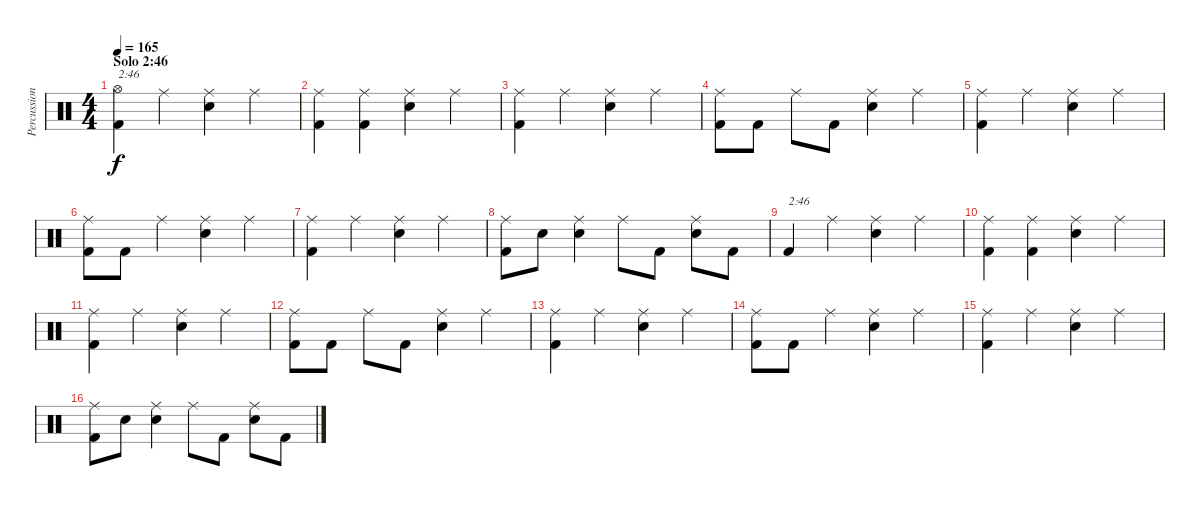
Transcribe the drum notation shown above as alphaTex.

\track ("Percussion" "Percussion") {instrument percussion}
\staff {score}
\articulation defaults
\ts (4 4)
\section ("" "Solo 2:46")
\tempo 165
\clef neutral
\ks c
("Hi-Hat (open)" "Kick (hit) 2").4{txt "2:46" dy f} "Ride (middle)".4 ("Ride (middle)" "Electric Snare (hit)").4 "Ride (middle)".4 |
("Ride (middle)" "Kick (hit) 2").4 ("Ride (middle)" "Kick (hit) 2").4 ("Ride (middle)" "Electric Snare (hit)").4 "Ride (middle)".4 |
("Ride (middle)" "Kick (hit) 2").4 "Ride (middle)".4 ("Ride (middle)" "Electric Snare (hit)").4 "Ride (middle)".4 |
("Ride (middle)" "Kick (hit) 2").8 "Kick (hit) 2".8 "Ride (middle)".8 "Kick (hit) 2".8 ("Ride (middle)" "Electric Snare (hit)").4 "Ride (middle)".4 |
("Ride (middle)" "Kick (hit) 2").4 "Ride (middle)".4 ("Ride (middle)" "Electric Snare (hit)").4 "Ride (middle)".4 |
("Ride (middle)" "Kick (hit) 2").8 "Kick (hit) 2".8 "Ride (middle)".4 ("Ride (middle)" "Electric Snare (hit)").4 "Ride (middle)".4 |
("Ride (middle)" "Kick (hit) 2").4 "Ride (middle)".4 ("Ride (middle)" "Electric Snare (hit)").4 "Ride (middle)".4 |
("Ride (middle)" "Kick (hit) 2").8 "Electric Snare (hit)".8 ("Ride (middle)" "Electric Snare (hit)").4 "Ride (middle)".8 "Kick (hit) 2".8 ("Ride (middle)" "Electric Snare (hit)").8 "Kick (hit) 2".8 |
"Kick (hit) 2".4{txt "2:46"} "Ride (middle)".4 ("Ride (middle)" "Electric Snare (hit)").4 "Ride (middle)".4 |
("Ride (middle)" "Kick (hit) 2").4 ("Ride (middle)" "Kick (hit) 2").4 ("Ride (middle)" "Electric Snare (hit)").4 "Ride (middle)".4 |
("Ride (middle)" "Kick (hit) 2").4 "Ride (middle)".4 ("Ride (middle)" "Electric Snare (hit)").4 "Ride (middle)".4 |
("Ride (middle)" "Kick (hit) 2").8 "Kick (hit) 2".8 "Ride (middle)".8 "Kick (hit) 2".8 ("Ride (middle)" "Electric Snare (hit)").4 "Ride (middle)".4 |
("Ride (middle)" "Kick (hit) 2").4 "Ride (middle)".4 ("Ride (middle)" "Electric Snare (hit)").4 "Ride (middle)".4 |
("Ride (middle)" "Kick (hit) 2").8 "Kick (hit) 2".8 "Ride (middle)".4 ("Ride (middle)" "Electric Snare (hit)").4 "Ride (middle)".4 |
("Ride (middle)" "Kick (hit) 2").4 "Ride (middle)".4 ("Ride (middle)" "Electric Snare (hit)").4 "Ride (middle)".4 |
("Ride (middle)" "Kick (hit) 2").8 "Electric Snare (hit)".8 ("Ride (middle)" "Electric Snare (hit)").4 "Ride (middle)".8 "Kick (hit) 2".8 ("Ride (middle)" "Electric Snare (hit)").8 "Kick (hit) 2".8
